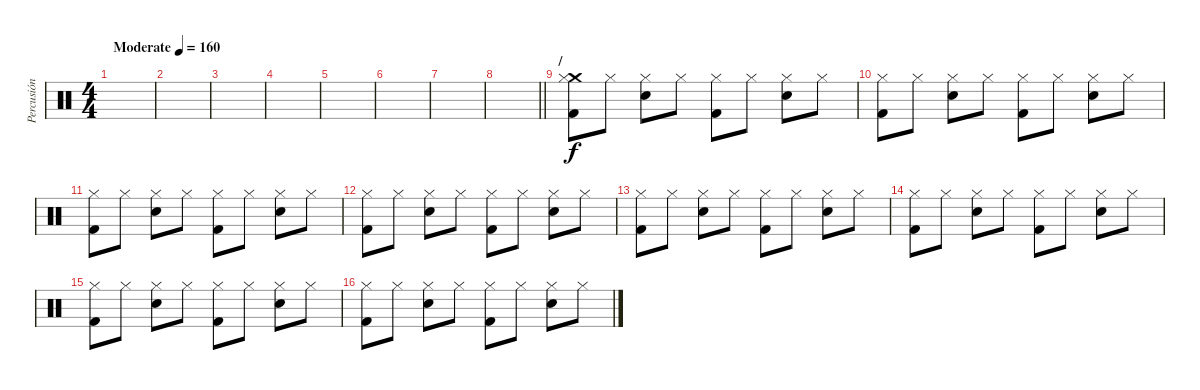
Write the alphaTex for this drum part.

\track ("Percusión" "Percusión") {instrument percussion}
\staff {score}
\articulation defaults
\ts (4 4)
\tempo (160 "Moderate")
\clef neutral
\ks c
|
|
|
|
|
|
|
\barLineRight lightlight
|
\section ("" "/")
("Crash medium (hit)" "Hi-Hat (closed)" "Kick (hit) 2").8 "Hi-Hat (closed)".8 ("Hi-Hat (closed)" "Snare (hit) 2").8 "Hi-Hat (closed)".8 ("Hi-Hat (closed)" "Kick (hit) 2").8 "Hi-Hat (closed)".8 ("Hi-Hat (closed)" "Snare (hit) 2").8 "Hi-Hat (closed)".8 |
("Hi-Hat (closed)" "Kick (hit) 2").8 "Hi-Hat (closed)".8 ("Hi-Hat (closed)" "Snare (hit) 2").8 "Hi-Hat (closed)".8 ("Hi-Hat (closed)" "Kick (hit) 2").8 "Hi-Hat (closed)".8 ("Hi-Hat (closed)" "Snare (hit) 2").8 "Hi-Hat (closed)".8 |
("Hi-Hat (closed)" "Kick (hit) 2").8 "Hi-Hat (closed)".8 ("Hi-Hat (closed)" "Snare (hit) 2").8 "Hi-Hat (closed)".8 ("Hi-Hat (closed)" "Kick (hit) 2").8 "Hi-Hat (closed)".8 ("Hi-Hat (closed)" "Snare (hit) 2").8 "Hi-Hat (closed)".8 |
("Hi-Hat (closed)" "Kick (hit) 2").8 "Hi-Hat (closed)".8 ("Hi-Hat (closed)" "Snare (hit) 2").8 "Hi-Hat (closed)".8 ("Hi-Hat (closed)" "Kick (hit) 2").8 "Hi-Hat (closed)".8 ("Hi-Hat (closed)" "Snare (hit) 2").8 "Hi-Hat (closed)".8 |
("Hi-Hat (closed)" "Kick (hit) 2").8 "Hi-Hat (closed)".8 ("Hi-Hat (closed)" "Snare (hit) 2").8 "Hi-Hat (closed)".8 ("Hi-Hat (closed)" "Kick (hit) 2").8 "Hi-Hat (closed)".8 ("Hi-Hat (closed)" "Snare (hit) 2").8 "Hi-Hat (closed)".8 |
("Hi-Hat (closed)" "Kick (hit) 2").8 "Hi-Hat (closed)".8 ("Hi-Hat (closed)" "Snare (hit) 2").8 "Hi-Hat (closed)".8 ("Hi-Hat (closed)" "Kick (hit) 2").8 "Hi-Hat (closed)".8 ("Hi-Hat (closed)" "Snare (hit) 2").8 "Hi-Hat (closed)".8 |
("Hi-Hat (closed)" "Kick (hit) 2").8 "Hi-Hat (closed)".8 ("Hi-Hat (closed)" "Snare (hit) 2").8 "Hi-Hat (closed)".8 ("Hi-Hat (closed)" "Kick (hit) 2").8 "Hi-Hat (closed)".8 ("Hi-Hat (closed)" "Snare (hit) 2").8 "Hi-Hat (closed)".8 |
("Hi-Hat (closed)" "Kick (hit) 2").8 "Hi-Hat (closed)".8 ("Hi-Hat (closed)" "Snare (hit) 2").8 "Hi-Hat (closed)".8 ("Hi-Hat (closed)" "Kick (hit) 2").8 "Hi-Hat (closed)".8 ("Hi-Hat (closed)" "Snare (hit) 2").8 "Hi-Hat (closed)".8
